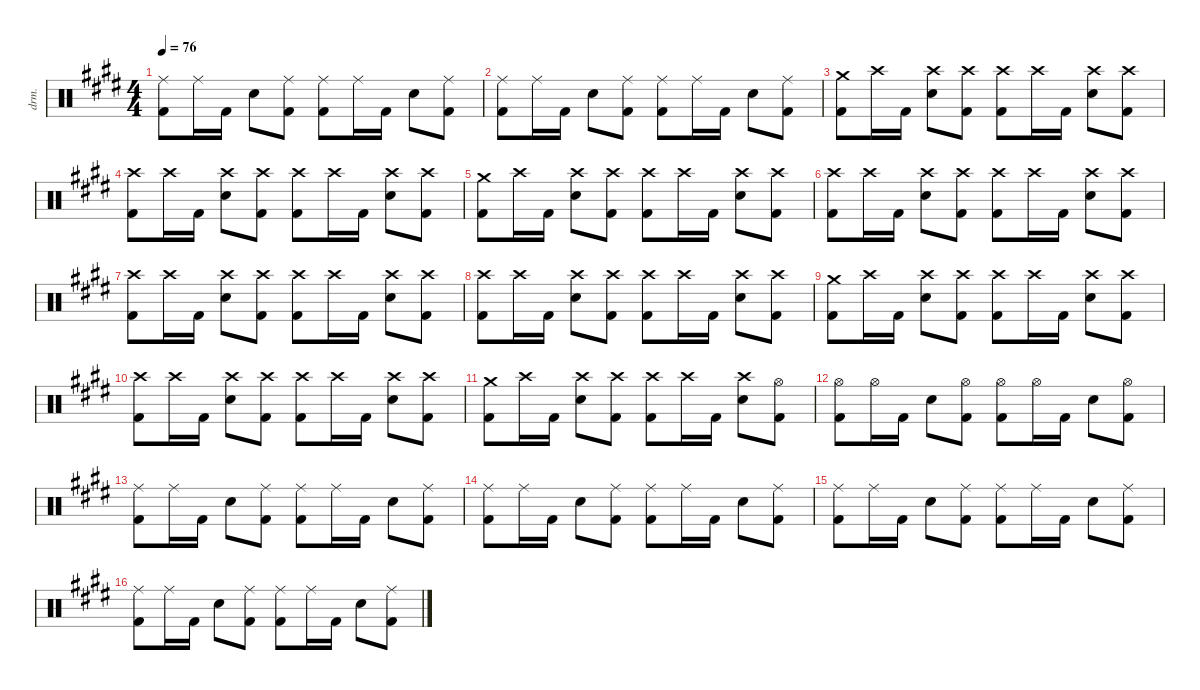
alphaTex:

\defaultSystemsLayout 4
\hideDynamics
\bracketExtendMode nobrackets
\otherSystemsTrackNameOrientation horizontal
\track ("Drums" "drm.") {defaultSystemsLayout 4 instrument percussion}
\staff {score}
\articulation defaults
\ts (4 4)
\tempo 76
\clef neutral
\ks e
("Ride (middle)"{acc forcenatural} "Kick (hit) 2"{acc forcenatural}).8{dy f beam Down} "Ride (middle)"{acc forcenatural}.16{beam Down} "Kick (hit) 2"{acc forcenatural}.16{beam Down} "Snare (hit) 2"{acc forcenatural}.8{beam Down} ("Ride (middle)"{acc forcenatural} "Kick (hit) 2"{acc forcenatural}).8{beam Down} ("Ride (middle)"{acc forcenatural} "Kick (hit) 2"{acc forcenatural}).8{beam Down} "Ride (middle)"{acc forcenatural}.16{beam Down} "Kick (hit) 2"{acc forcenatural}.16{beam Down} "Snare (hit) 2"{acc forcenatural}.8{beam Down} ("Ride (middle)"{acc forcenatural} "Kick (hit) 2"{acc forcenatural}).8{beam Down} |
("Ride (middle)"{acc forcenatural} "Kick (hit) 2"{acc forcenatural}).8{beam Down} "Ride (middle)"{acc forcenatural}.16{beam Down} "Kick (hit) 2"{acc forcenatural}.16{beam Down} "Snare (hit) 2"{acc forcenatural}.8{beam Down} ("Ride (middle)"{acc forcenatural} "Kick (hit) 2"{acc forcenatural}).8{beam Down} ("Ride (middle)"{acc forcenatural} "Kick (hit) 2"{acc forcenatural}).8{beam Down} "Ride (middle)"{acc forcenatural}.16{beam Down} "Kick (hit) 2"{acc forcenatural}.16{beam Down} "Snare (hit) 2"{acc forcenatural}.8{beam Down} ("Ride (middle)"{acc forcenatural} "Kick (hit) 2"{acc forcenatural}).8{beam Down} |
("Crash medium (hit)"{acc forcenatural} "Kick (hit) 2"{acc forcenatural}).8{beam Down} "Crash high (hit)"{acc forcenatural}.16{dy mf beam Down} "Kick (hit) 2"{acc forcenatural}.16{dy f beam Down} ("Crash high (hit)"{acc forcenatural} "Snare (hit) 2"{acc forcenatural}).8{dy mf beam Down} ("Crash high (hit)"{acc forcenatural} "Kick (hit) 2"{acc forcenatural}).8{beam Down} ("Crash high (hit)"{acc forcenatural} "Kick (hit) 2"{acc forcenatural}).8{beam Down} "Crash high (hit)"{acc forcenatural}.16{beam Down} "Kick (hit) 2"{acc forcenatural}.16{dy f beam Down} ("Crash high (hit)"{acc forcenatural} "Snare (hit) 2"{acc forcenatural}).8{dy mf beam Down} ("Crash high (hit)"{acc forcenatural} "Kick (hit) 2"{acc forcenatural}).8{beam Down} |
("Crash high (hit)"{acc forcenatural} "Kick (hit) 2"{acc forcenatural}).8{beam Down} "Crash high (hit)"{acc forcenatural}.16{beam Down} "Kick (hit) 2"{acc forcenatural}.16{dy f beam Down} ("Crash high (hit)"{acc forcenatural} "Snare (hit) 2"{acc forcenatural}).8{dy mf beam Down} ("Crash high (hit)"{acc forcenatural} "Kick (hit) 2"{acc forcenatural}).8{beam Down} ("Crash high (hit)"{acc forcenatural} "Kick (hit) 2"{acc forcenatural}).8{beam Down} "Crash high (hit)"{acc forcenatural}.16{beam Down} "Kick (hit) 2"{acc forcenatural}.16{dy f beam Down} ("Crash high (hit)"{acc forcenatural} "Snare (hit) 2"{acc forcenatural}).8{dy mf beam Down} ("Crash high (hit)"{acc forcenatural} "Kick (hit) 2"{acc forcenatural}).8{beam Down} |
("Crash medium (hit)"{acc forcenatural} "Kick (hit) 2"{acc forcenatural}).8{dy f beam Down} "Crash high (hit)"{acc forcenatural}.16{dy mf beam Down} "Kick (hit) 2"{acc forcenatural}.16{dy f beam Down} ("Crash high (hit)"{acc forcenatural} "Snare (hit) 2"{acc forcenatural}).8{dy mf beam Down} ("Crash high (hit)"{acc forcenatural} "Kick (hit) 2"{acc forcenatural}).8{beam Down} ("Crash high (hit)"{acc forcenatural} "Kick (hit) 2"{acc forcenatural}).8{beam Down} "Crash high (hit)"{acc forcenatural}.16{beam Down} "Kick (hit) 2"{acc forcenatural}.16{dy f beam Down} ("Crash high (hit)"{acc forcenatural} "Snare (hit) 2"{acc forcenatural}).8{dy mf beam Down} ("Crash high (hit)"{acc forcenatural} "Kick (hit) 2"{acc forcenatural}).8{beam Down} |
("Crash high (hit)"{acc forcenatural} "Kick (hit) 2"{acc forcenatural}).8{beam Down} "Crash high (hit)"{acc forcenatural}.16{dy mp beam Down} "Kick (hit) 2"{acc forcenatural}.16{dy f beam Down} ("Crash high (hit)"{acc forcenatural} "Snare (hit) 2"{acc forcenatural}).8{dy mf beam Down} ("Crash high (hit)"{acc forcenatural} "Kick (hit) 2"{acc forcenatural}).8{beam Down} ("Crash high (hit)"{acc forcenatural} "Kick (hit) 2"{acc forcenatural}).8{beam Down} "Crash high (hit)"{acc forcenatural}.16{beam Down} "Kick (hit) 2"{acc forcenatural}.16{dy f beam Down} ("Crash high (hit)"{acc forcenatural} "Snare (hit) 2"{acc forcenatural}).8{dy mf beam Down} ("Crash high (hit)"{acc forcenatural} "Kick (hit) 2"{acc forcenatural}).8{beam Down} |
("Crash high (hit)"{acc forcenatural} "Kick (hit) 2"{acc forcenatural}).8{beam Down} "Crash high (hit)"{acc forcenatural}.16{dy mp beam Down} "Kick (hit) 2"{acc forcenatural}.16{dy f beam Down} ("Crash high (hit)"{acc forcenatural} "Snare (hit) 2"{acc forcenatural}).8{dy mf beam Down} ("Crash high (hit)"{acc forcenatural} "Kick (hit) 2"{acc forcenatural}).8{beam Down} ("Crash high (hit)"{acc forcenatural} "Kick (hit) 2"{acc forcenatural}).8{beam Down} "Crash high (hit)"{acc forcenatural}.16{beam Down} "Kick (hit) 2"{acc forcenatural}.16{dy f beam Down} ("Crash high (hit)"{acc forcenatural} "Snare (hit) 2"{acc forcenatural}).8{dy mf beam Down} ("Crash high (hit)"{acc forcenatural} "Kick (hit) 2"{acc forcenatural}).8{beam Down} |
("Crash high (hit)"{acc forcenatural} "Kick (hit) 2"{acc forcenatural}).8{beam Down} "Crash high (hit)"{acc forcenatural}.16{beam Down} "Kick (hit) 2"{acc forcenatural}.16{dy f beam Down} ("Crash high (hit)"{acc forcenatural} "Snare (hit) 2"{acc forcenatural}).8{dy mf beam Down} ("Crash high (hit)"{acc forcenatural} "Kick (hit) 2"{acc forcenatural}).8{beam Down} ("Crash high (hit)"{acc forcenatural} "Kick (hit) 2"{acc forcenatural}).8{beam Down} "Crash high (hit)"{acc forcenatural}.16{beam Down} "Kick (hit) 2"{acc forcenatural}.16{dy f beam Down} ("Crash high (hit)"{acc forcenatural} "Snare (hit) 2"{acc forcenatural}).8{dy mf beam Down} ("Crash high (hit)"{acc forcenatural} "Kick (hit) 2"{acc forcenatural}).8{beam Down} |
("Crash medium (hit)"{acc forcenatural} "Kick (hit) 2"{acc forcenatural}).8{dy f beam Down} "Crash high (hit)"{acc forcenatural}.16{dy mf beam Down} "Kick (hit) 2"{acc forcenatural}.16{dy f beam Down} ("Crash high (hit)"{acc forcenatural} "Snare (hit) 2"{acc forcenatural}).8{dy mf beam Down} ("Crash high (hit)"{acc forcenatural} "Kick (hit) 2"{acc forcenatural}).8{beam Down} ("Crash high (hit)"{acc forcenatural} "Kick (hit) 2"{acc forcenatural}).8{beam Down} "Crash high (hit)"{acc forcenatural}.16{beam Down} "Kick (hit) 2"{acc forcenatural}.16{dy f beam Down} ("Crash high (hit)"{acc forcenatural} "Snare (hit) 2"{acc forcenatural}).8{dy mf beam Down} ("Crash high (hit)"{acc forcenatural} "Kick (hit) 2"{acc forcenatural}).8{beam Down} |
("Crash high (hit)"{acc forcenatural} "Kick (hit) 2"{acc forcenatural}).8{dy f beam Down} "Crash high (hit)"{acc forcenatural}.16{beam Down} "Kick (hit) 2"{acc forcenatural}.16{beam Down} ("Crash high (hit)"{acc forcenatural} "Snare (hit) 2"{acc forcenatural}).8{beam Down} ("Crash high (hit)"{acc forcenatural} "Kick (hit) 2"{acc forcenatural}).8{beam Down} ("Crash high (hit)"{acc forcenatural} "Kick (hit) 2"{acc forcenatural}).8{beam Down} "Crash high (hit)"{acc forcenatural}.16{beam Down} "Kick (hit) 2"{acc forcenatural}.16{beam Down} ("Crash high (hit)"{acc forcenatural} "Snare (hit) 2"{acc forcenatural}).8{beam Down} ("Crash high (hit)"{acc forcenatural} "Kick (hit) 2"{acc forcenatural}).8{beam Down} |
("Crash medium (hit)"{acc forcenatural} "Kick (hit) 2"{acc forcenatural}).8{beam Down} "Crash high (hit)"{acc forcenatural}.16{beam Down} "Kick (hit) 2"{acc forcenatural}.16{beam Down} ("Crash high (hit)"{acc forcenatural} "Snare (hit) 2"{acc forcenatural}).8{beam Down} ("Crash high (hit)"{acc forcenatural} "Kick (hit) 2"{acc forcenatural}).8{beam Down} ("Crash high (hit)"{acc forcenatural} "Kick (hit) 2"{acc forcenatural}).8{beam Down} "Crash high (hit)"{acc forcenatural}.16{beam Down} "Kick (hit) 2"{acc forcenatural}.16{beam Down} ("Crash high (hit)"{acc forcenatural} "Snare (hit) 2"{acc forcenatural}).8{beam Down} ("Hi-Hat (open)"{acc forcenatural} "Kick (hit) 2"{acc forcenatural}).8{beam Down} |
("Hi-Hat (open)"{acc forcenatural} "Kick (hit) 2"{acc forcenatural}).8{beam Down} "Hi-Hat (open)"{acc forcenatural}.16{beam Down} "Kick (hit) 2"{acc forcenatural}.16{beam Down} "Snare (hit) 2"{acc forcenatural}.8{beam Down} ("Hi-Hat (open)"{acc forcenatural} "Kick (hit) 2"{acc forcenatural}).8{beam Down} ("Hi-Hat (open)"{acc forcenatural} "Kick (hit) 2"{acc forcenatural}).8{beam Down} "Hi-Hat (open)"{acc forcenatural}.16{beam Down} "Kick (hit) 2"{acc forcenatural}.16{beam Down} "Snare (hit) 2"{acc forcenatural}.8{beam Down} ("Hi-Hat (open)"{acc forcenatural} "Kick (hit) 2"{acc forcenatural}).8{beam Down} |
("Ride (middle)"{acc forcenatural} "Kick (hit) 2"{acc forcenatural}).8{beam Down} "Ride (middle)"{acc forcenatural}.16{beam Down} "Kick (hit) 2"{acc forcenatural}.16{beam Down} "Snare (hit) 2"{acc forcenatural}.8{beam Down} ("Ride (middle)"{acc forcenatural} "Kick (hit) 2"{acc forcenatural}).8{beam Down} ("Ride (middle)"{acc forcenatural} "Kick (hit) 2"{acc forcenatural}).8{beam Down} "Ride (middle)"{acc forcenatural}.16{beam Down} "Kick (hit) 2"{acc forcenatural}.16{beam Down} "Snare (hit) 2"{acc forcenatural}.8{beam Down} ("Ride (middle)"{acc forcenatural} "Kick (hit) 2"{acc forcenatural}).8{beam Down} |
("Ride (middle)"{acc forcenatural} "Kick (hit) 2"{acc forcenatural}).8{beam Down} "Ride (middle)"{acc forcenatural}.16{beam Down} "Kick (hit) 2"{acc forcenatural}.16{beam Down} "Snare (hit) 2"{acc forcenatural}.8{beam Down} ("Ride (middle)"{acc forcenatural} "Kick (hit) 2"{acc forcenatural}).8{beam Down} ("Ride (middle)"{acc forcenatural} "Kick (hit) 2"{acc forcenatural}).8{beam Down} "Ride (middle)"{acc forcenatural}.16{beam Down} "Kick (hit) 2"{acc forcenatural}.16{beam Down} "Snare (hit) 2"{acc forcenatural}.8{beam Down} ("Ride (middle)"{acc forcenatural} "Kick (hit) 2"{acc forcenatural}).8{beam Down} |
("Ride (middle)"{acc forcenatural} "Kick (hit) 2"{acc forcenatural}).8{beam Down} "Ride (middle)"{acc forcenatural}.16{beam Down} "Kick (hit) 2"{acc forcenatural}.16{beam Down} "Snare (hit) 2"{acc forcenatural}.8{beam Down} ("Ride (middle)"{acc forcenatural} "Kick (hit) 2"{acc forcenatural}).8{beam Down} ("Ride (middle)"{acc forcenatural} "Kick (hit) 2"{acc forcenatural}).8{beam Down} "Ride (middle)"{acc forcenatural}.16{beam Down} "Kick (hit) 2"{acc forcenatural}.16{beam Down} "Snare (hit) 2"{acc forcenatural}.8{beam Down} ("Ride (middle)"{acc forcenatural} "Kick (hit) 2"{acc forcenatural}).8{beam Down} |
("Ride (middle)"{acc forcenatural} "Kick (hit) 2"{acc forcenatural}).8{beam Down} "Ride (middle)"{acc forcenatural}.16{beam Down} "Kick (hit) 2"{acc forcenatural}.16{beam Down} "Snare (hit) 2"{acc forcenatural}.8{beam Down} ("Ride (middle)"{acc forcenatural} "Kick (hit) 2"{acc forcenatural}).8{beam Down} ("Ride (middle)"{acc forcenatural} "Kick (hit) 2"{acc forcenatural}).8{beam Down} "Ride (middle)"{acc forcenatural}.16{beam Down} "Kick (hit) 2"{acc forcenatural}.16{beam Down} "Snare (hit) 2"{acc forcenatural}.8{beam Down} ("Ride (middle)"{acc forcenatural} "Kick (hit) 2"{acc forcenatural}).8{beam Down}
